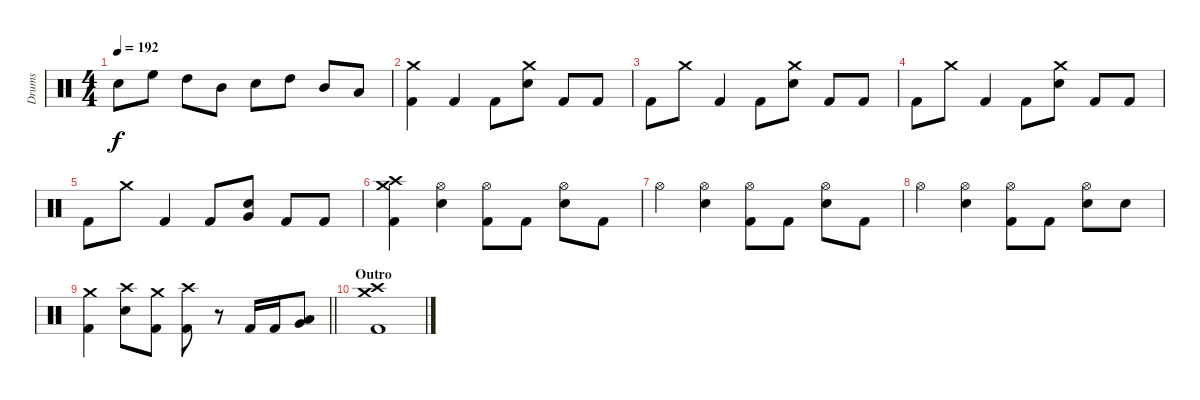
\track ("Drums" "Drums") {instrument percussion}
\staff {score}
\articulation defaults
\ts (4 4)
\tempo 192
\clef neutral
\ks c "Electric Snare (hit)".8{dy f} "High Floor Tom (hit)".8 "High Tom (hit)".8 "Mid Tom (hit)".8 "Electric Snare (hit)".8 "High Tom (hit)".8 "Mid Tom (hit)".8 "Low Tom (hit)".8
|
("Crash medium (hit)" "Kick (hit) 2").4 "Kick (hit) 2".4 "Kick (hit) 2".8 ("Crash medium (hit)" "Electric Snare (hit)").8 "Kick (hit) 2".8 "Kick (hit) 2".8 |
"Kick (hit) 2".8 "Crash medium (hit)".8 "Kick (hit) 2".4 "Kick (hit) 2".8 ("Crash medium (hit)" "Electric Snare (hit)").8 "Kick (hit) 2".8 "Kick (hit) 2".8 |
"Kick (hit) 2".8 "Crash medium (hit)".8 "Kick (hit) 2".4 "Kick (hit) 2".8 ("Crash medium (hit)" "Electric Snare (hit)").8 "Kick (hit) 2".8 "Kick (hit) 2".8 |
"Kick (hit) 2".8 "Crash medium (hit)".8 "Kick (hit) 2".4 "Kick (hit) 2".8 ("Very Low Tom (hit)" "Electric Snare (hit)").8 "Kick (hit) 2".8 "Kick (hit) 2".8 |
("Crash medium (hit)" "Crash high (hit)" "Kick (hit) 2").4 ("Hi-Hat (open)" "Electric Snare (hit)").4 ("Hi-Hat (open)" "Kick (hit) 2").8 "Kick (hit) 2".8 ("Hi-Hat (open)" "Electric Snare (hit)").8 "Kick (hit) 2".8 |
"Hi-Hat (open)".4 ("Hi-Hat (open)" "Electric Snare (hit)").4 ("Hi-Hat (open)" "Kick (hit) 2").8 "Kick (hit) 2".8 ("Hi-Hat (open)" "Electric Snare (hit)").8 "Kick (hit) 2".8 |
"Hi-Hat (open)".4 ("Hi-Hat (open)" "Electric Snare (hit)").4 ("Hi-Hat (open)" "Kick (hit) 2").8 "Kick (hit) 2".8 ("Hi-Hat (open)" "Electric Snare (hit)").8 "Electric Snare (hit)".8 |
\barLineRight lightlight
("Crash medium (hit)" "Kick (hit) 2").4 ("Crash high (hit)" "Electric Snare (hit)").8 ("Crash medium (hit)" "Kick (hit) 2").8 ("Crash high (hit)" "Kick (hit) 2").8 r.8 "Kick (hit) 2".16 "Kick (hit) 2".16 ("Very Low Tom (hit)" "Low Floor Tom (hit)").8 |
\section ("" "Outro")
("Crash high (hit)" "Crash medium (hit)" "Kick (hit) 2").1
